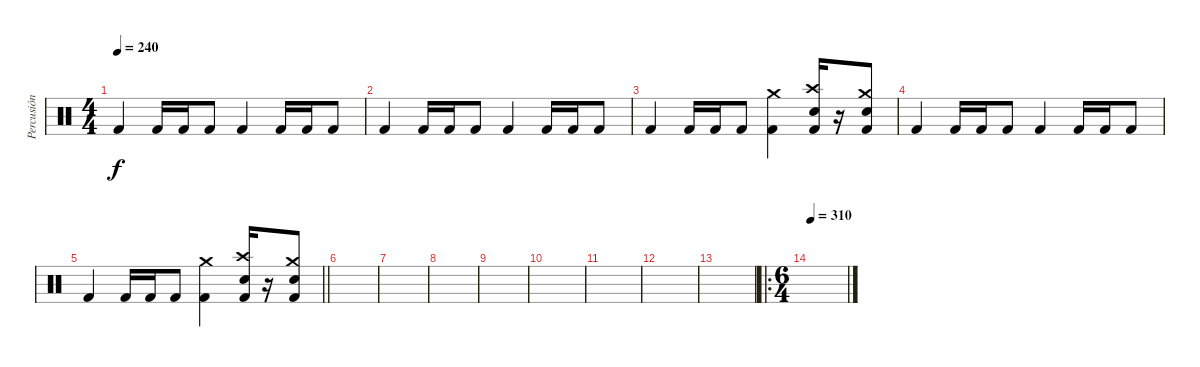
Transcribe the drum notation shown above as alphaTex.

\track ("Percusión" "Percusión") {instrument percussion}
\staff {score}
\articulation defaults
\ts (4 4)
\tempo 240
\clef neutral
\ks c "Kick (hit) 2".4{dy f} "Kick (hit) 2".16 "Kick (hit) 2".16 "Kick (hit) 2".8 "Kick (hit) 2".4 "Kick (hit) 2".16 "Kick (hit) 2".16 "Kick (hit) 2".8
|
"Kick (hit) 2".4 "Kick (hit) 2".16 "Kick (hit) 2".16 "Kick (hit) 2".8 "Kick (hit) 2".4 "Kick (hit) 2".16 "Kick (hit) 2".16 "Kick (hit) 2".8 |
"Kick (hit) 2".4 "Kick (hit) 2".16 "Kick (hit) 2".16 "Kick (hit) 2".8 ("Crash medium (hit)" "Kick (hit) 2").4 ("Crash high (hit)" "Electric Snare (hit)" "Kick (hit) 2").16 r.16 ("Crash medium (hit)" "Electric Snare (hit)" "Kick (hit) 2").8 |
"Kick (hit) 2".4 "Kick (hit) 2".16 "Kick (hit) 2".16 "Kick (hit) 2".8 "Kick (hit) 2".4 "Kick (hit) 2".16 "Kick (hit) 2".16 "Kick (hit) 2".8 |
\barLineRight lightlight "Kick (hit) 2".4 "Kick (hit) 2".16 "Kick (hit) 2".16 "Kick (hit) 2".8
("Crash medium (hit)" "Kick (hit) 2").4 ("Crash high (hit)" "Electric Snare (hit)" "Kick (hit) 2").16 r.16 ("Crash medium (hit)" "Electric Snare (hit)" "Kick (hit) 2").8 |
|
|
|
|
|
|
|
|
\ro
\ts (6 4)
\tempo 310
